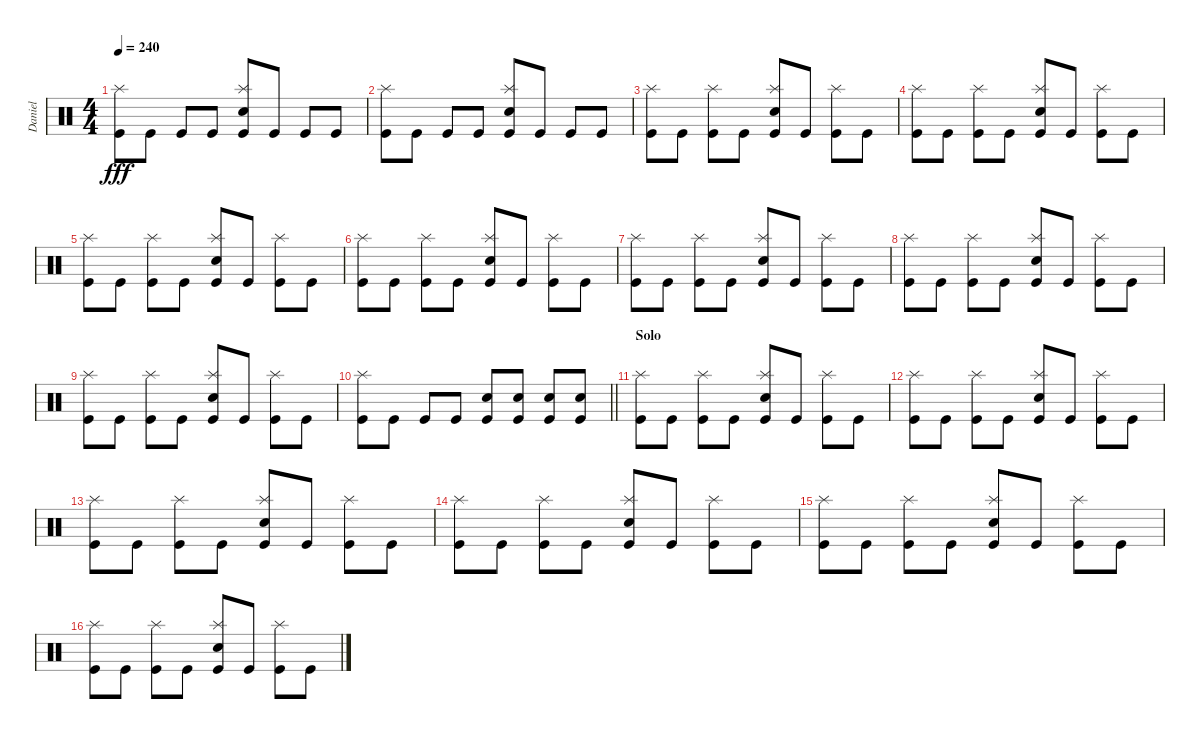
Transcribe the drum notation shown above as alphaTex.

\track ("Daniel" "Daniel") {instrument percussion}
\staff {score}
\articulation defaults
\ts (4 4)
\tempo 240
\clef neutral
\ks c
("Kick (hit)" "Splash (hit)").8{dy fff} "Kick (hit)".8 "Kick (hit)".8 "Kick (hit)".8 ("Kick (hit)" "Electric Snare (hit)" "Splash (hit)").8 "Kick (hit)".8 "Kick (hit)".8 "Kick (hit)".8 |
("Kick (hit)" "Splash (hit)").8 "Kick (hit)".8 "Kick (hit)".8 "Kick (hit)".8 ("Kick (hit)" "Electric Snare (hit)" "Splash (hit)").8 "Kick (hit)".8 "Kick (hit)".8 "Kick (hit)".8 |
("Kick (hit)" "Splash (hit)").8 "Kick (hit)".8 ("Kick (hit)" "Splash (hit)").8 "Kick (hit)".8 ("Kick (hit)" "Electric Snare (hit)" "Splash (hit)").8 "Kick (hit)".8 ("Kick (hit)" "Splash (hit)").8 "Kick (hit)".8 |
("Kick (hit)" "Splash (hit)").8 "Kick (hit)".8 ("Kick (hit)" "Splash (hit)").8 "Kick (hit)".8 ("Kick (hit)" "Electric Snare (hit)" "Splash (hit)").8 "Kick (hit)".8 ("Kick (hit)" "Splash (hit)").8 "Kick (hit)".8 |
("Kick (hit)" "Splash (hit)").8 "Kick (hit)".8 ("Kick (hit)" "Splash (hit)").8 "Kick (hit)".8 ("Kick (hit)" "Electric Snare (hit)" "Splash (hit)").8 "Kick (hit)".8 ("Kick (hit)" "Splash (hit)").8 "Kick (hit)".8 |
("Kick (hit)" "Splash (hit)").8 "Kick (hit)".8 ("Kick (hit)" "Splash (hit)").8 "Kick (hit)".8 ("Kick (hit)" "Electric Snare (hit)" "Splash (hit)").8 "Kick (hit)".8 ("Kick (hit)" "Splash (hit)").8 "Kick (hit)".8 |
("Kick (hit)" "Splash (hit)").8 "Kick (hit)".8 ("Kick (hit)" "Splash (hit)").8 "Kick (hit)".8 ("Kick (hit)" "Electric Snare (hit)" "Splash (hit)").8 "Kick (hit)".8 ("Kick (hit)" "Splash (hit)").8 "Kick (hit)".8 |
("Kick (hit)" "Splash (hit)").8 "Kick (hit)".8 ("Kick (hit)" "Splash (hit)").8 "Kick (hit)".8 ("Kick (hit)" "Electric Snare (hit)" "Splash (hit)").8 "Kick (hit)".8 ("Kick (hit)" "Splash (hit)").8 "Kick (hit)".8 |
("Kick (hit)" "Splash (hit)").8 "Kick (hit)".8 ("Kick (hit)" "Splash (hit)").8 "Kick (hit)".8 ("Kick (hit)" "Electric Snare (hit)" "Splash (hit)").8 "Kick (hit)".8 ("Kick (hit)" "Splash (hit)").8 "Kick (hit)".8 |
\barLineRight lightlight
("Kick (hit)" "Splash (hit)").8 "Kick (hit)".8 "Kick (hit)".8 "Kick (hit)".8 ("Kick (hit)" "Electric Snare (hit)").8 ("Kick (hit)" "Electric Snare (hit)").8 ("Kick (hit)" "Electric Snare (hit)").8 ("Kick (hit)" "Electric Snare (hit)").8 |
\section ("" "Solo")
("Kick (hit)" "Splash (hit)").8 "Kick (hit)".8 ("Kick (hit)" "Splash (hit)").8 "Kick (hit)".8 ("Kick (hit)" "Electric Snare (hit)" "Splash (hit)").8 "Kick (hit)".8 ("Kick (hit)" "Splash (hit)").8 "Kick (hit)".8 |
("Kick (hit)" "Splash (hit)").8 "Kick (hit)".8 ("Kick (hit)" "Splash (hit)").8 "Kick (hit)".8 ("Kick (hit)" "Electric Snare (hit)" "Splash (hit)").8 "Kick (hit)".8 ("Kick (hit)" "Splash (hit)").8 "Kick (hit)".8 |
("Kick (hit)" "Splash (hit)").8 "Kick (hit)".8 ("Kick (hit)" "Splash (hit)").8 "Kick (hit)".8 ("Kick (hit)" "Electric Snare (hit)" "Splash (hit)").8 "Kick (hit)".8 ("Kick (hit)" "Splash (hit)").8 "Kick (hit)".8 |
("Kick (hit)" "Splash (hit)").8 "Kick (hit)".8 ("Kick (hit)" "Splash (hit)").8 "Kick (hit)".8 ("Kick (hit)" "Electric Snare (hit)" "Splash (hit)").8 "Kick (hit)".8 ("Kick (hit)" "Splash (hit)").8 "Kick (hit)".8 |
("Kick (hit)" "Splash (hit)").8 "Kick (hit)".8 ("Kick (hit)" "Splash (hit)").8 "Kick (hit)".8 ("Kick (hit)" "Electric Snare (hit)" "Splash (hit)").8 "Kick (hit)".8 ("Kick (hit)" "Splash (hit)").8 "Kick (hit)".8 |
("Kick (hit)" "Splash (hit)").8 "Kick (hit)".8 ("Kick (hit)" "Splash (hit)").8 "Kick (hit)".8 ("Kick (hit)" "Electric Snare (hit)" "Splash (hit)").8 "Kick (hit)".8 ("Kick (hit)" "Splash (hit)").8 "Kick (hit)".8
